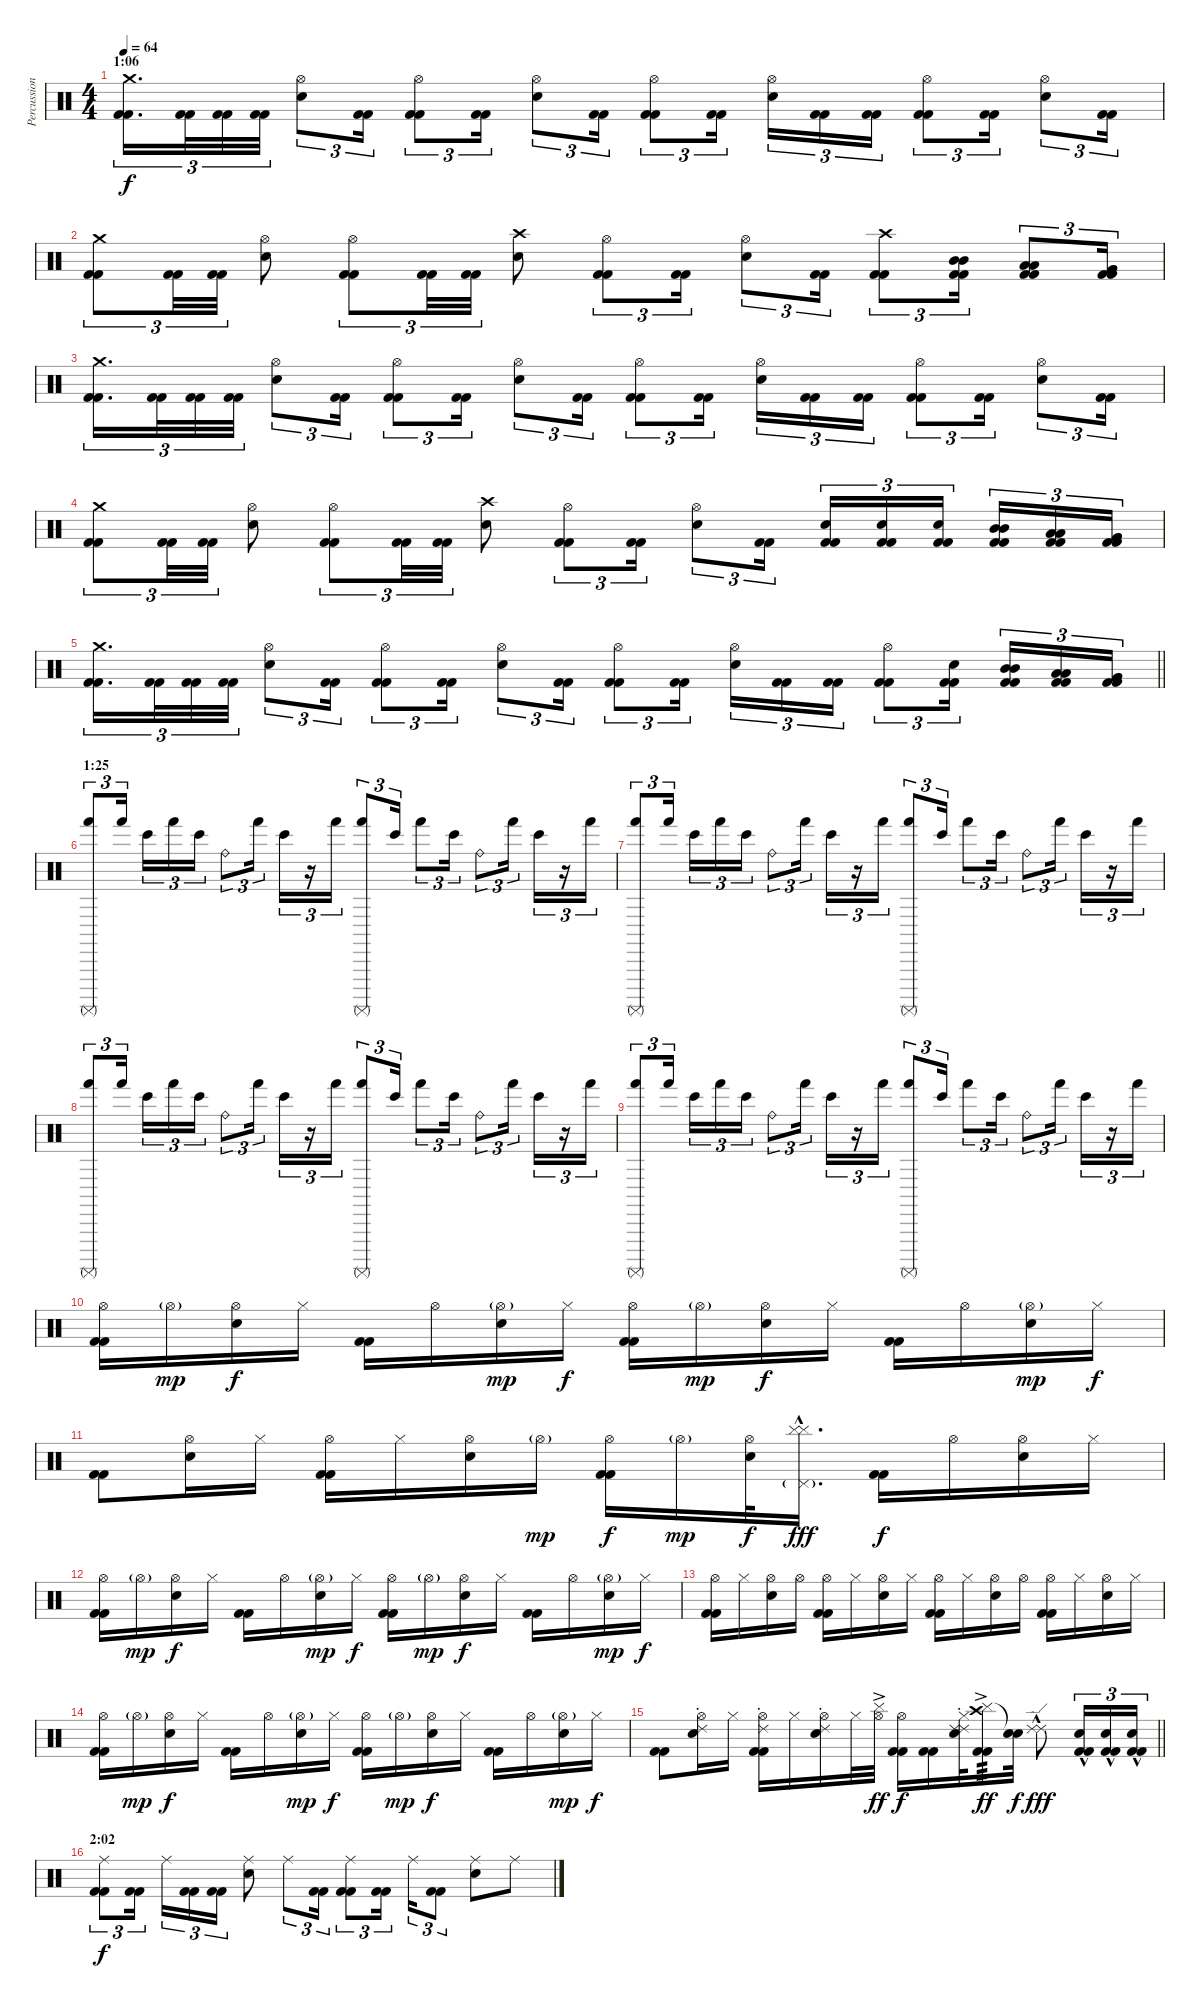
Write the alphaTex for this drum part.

\track ("Percussion" "Percussion") {instrument percussion}
\staff {score}
\articulation defaults
\ts (4 4)
\section ("" "1:06")
\tempo 64
\clef neutral
\ks c
("Crash medium (hit)" "Kick (hit) 2" "Kick (hit) 2").16{d tu (3 2) dy f} ("Kick (hit) 2" "Kick (hit) 2").32{tu (3 2)} ("Kick (hit) 2" "Kick (hit) 2").32{tu (3 2)} ("Kick (hit) 2" "Kick (hit) 2").32{tu (3 2)} ("Hi-Hat (open)" "Electric Snare (hit)").8{tu (3 2)} ("Kick (hit) 2" "Kick (hit) 2").16{tu (3 2)} ("Hi-Hat (open)" "Kick (hit) 2" "Kick (hit) 2").8{tu (3 2)} ("Kick (hit) 2" "Kick (hit) 2").16{tu (3 2)} ("Hi-Hat (open)" "Electric Snare (hit)").8{tu (3 2)} ("Kick (hit) 2" "Kick (hit) 2").16{tu (3 2)} ("Hi-Hat (open)" "Kick (hit) 2" "Kick (hit) 2").8{tu (3 2)} ("Kick (hit) 2" "Kick (hit) 2").16{tu (3 2) beam splitsecondary} ("Hi-Hat (open)" "Electric Snare (hit)").16{tu (3 2)} ("Kick (hit) 2" "Kick (hit) 2").16{tu (3 2)} ("Kick (hit) 2" "Kick (hit) 2").16{tu (3 2)} ("Hi-Hat (open)" "Kick (hit) 2" "Kick (hit) 2").8{tu (3 2)} ("Kick (hit) 2" "Kick (hit) 2").16{tu (3 2)} ("Hi-Hat (open)" "Electric Snare (hit)").8{tu (3 2)} ("Kick (hit) 2" "Kick (hit) 2").16{tu (3 2)} |
("Crash medium (hit)" "Kick (hit) 2" "Kick (hit) 2").8{tu (3 2)} ("Kick (hit) 2" "Kick (hit) 2").32{tu (3 2)} ("Kick (hit) 2" "Kick (hit) 2").32{tu (3 2)} ("Hi-Hat (open)" "Electric Snare (hit)").8 ("Hi-Hat (open)" "Kick (hit) 2" "Kick (hit) 2").8{tu (3 2)} ("Kick (hit) 2" "Kick (hit) 2").32{tu (3 2)} ("Kick (hit) 2" "Kick (hit) 2").32{tu (3 2)} ("Crash high (hit)" "Electric Snare (hit)").8 ("Hi-Hat (open)" "Kick (hit) 2" "Kick (hit) 2").8{tu (3 2)} ("Kick (hit) 2" "Kick (hit) 2").16{tu (3 2)} ("Hi-Hat (open)" "Electric Snare (hit)").8{tu (3 2)} ("Kick (hit) 2" "Kick (hit) 2").16{tu (3 2)} ("Crash high (hit)" "Kick (hit) 2" "Kick (hit) 2").8{tu (3 2)} ("Mid Tom (hit)" "Mid Tom (hit)" "Kick (hit) 2" "Kick (hit) 2").16{tu (3 2)} ("Low Tom (hit)" "Low Tom (hit)" "Kick (hit) 2" "Kick (hit) 2").8{tu (3 2)} ("Very Low Tom (hit)" "Very Low Tom (hit)" "Kick (hit) 2" "Kick (hit) 2").16{tu (3 2)} |
("Crash medium (hit)" "Kick (hit) 2" "Kick (hit) 2").16{d tu (3 2)} ("Kick (hit) 2" "Kick (hit) 2").32{tu (3 2)} ("Kick (hit) 2" "Kick (hit) 2").32{tu (3 2)} ("Kick (hit) 2" "Kick (hit) 2").32{tu (3 2)} ("Hi-Hat (open)" "Electric Snare (hit)").8{tu (3 2)} ("Kick (hit) 2" "Kick (hit) 2").16{tu (3 2)} ("Hi-Hat (open)" "Kick (hit) 2" "Kick (hit) 2").8{tu (3 2)} ("Kick (hit) 2" "Kick (hit) 2").16{tu (3 2)} ("Hi-Hat (open)" "Electric Snare (hit)").8{tu (3 2)} ("Kick (hit) 2" "Kick (hit) 2").16{tu (3 2)} ("Hi-Hat (open)" "Kick (hit) 2" "Kick (hit) 2").8{tu (3 2)} ("Kick (hit) 2" "Kick (hit) 2").16{tu (3 2) beam splitsecondary} ("Hi-Hat (open)" "Electric Snare (hit)").16{tu (3 2)} ("Kick (hit) 2" "Kick (hit) 2").16{tu (3 2)} ("Kick (hit) 2" "Kick (hit) 2").16{tu (3 2)} ("Hi-Hat (open)" "Kick (hit) 2" "Kick (hit) 2").8{tu (3 2)} ("Kick (hit) 2" "Kick (hit) 2").16{tu (3 2)} ("Hi-Hat (open)" "Electric Snare (hit)").8{tu (3 2)} ("Kick (hit) 2" "Kick (hit) 2").16{tu (3 2)} |
("Crash medium (hit)" "Kick (hit) 2" "Kick (hit) 2").8{tu (3 2)} ("Kick (hit) 2" "Kick (hit) 2").32{tu (3 2)} ("Kick (hit) 2" "Kick (hit) 2").32{tu (3 2)} ("Hi-Hat (open)" "Electric Snare (hit)").8 ("Hi-Hat (open)" "Kick (hit) 2" "Kick (hit) 2").8{tu (3 2)} ("Kick (hit) 2" "Kick (hit) 2").32{tu (3 2)} ("Kick (hit) 2" "Kick (hit) 2").32{tu (3 2)} ("Crash high (hit)" "Electric Snare (hit)").8 ("Hi-Hat (open)" "Kick (hit) 2" "Kick (hit) 2").8{tu (3 2)} ("Kick (hit) 2" "Kick (hit) 2").16{tu (3 2)} ("Hi-Hat (open)" "Electric Snare (hit)").8{tu (3 2)} ("Kick (hit) 2" "Kick (hit) 2").16{tu (3 2)} ("Electric Snare (hit)" "Kick (hit) 2" "Kick (hit) 2").16{tu (3 2)} ("Electric Snare (hit)" "Kick (hit) 2" "Kick (hit) 2").16{tu (3 2)} ("Electric Snare (hit)" "Kick (hit) 2" "Kick (hit) 2").16{tu (3 2) beam splitsecondary} ("Mid Tom (hit)" "Mid Tom (hit)" "Kick (hit) 2" "Kick (hit) 2").16{tu (3 2)} ("Low Tom (hit)" "Low Tom (hit)" "Kick (hit) 2" "Kick (hit) 2").16{tu (3 2)} ("Very Low Tom (hit)" "Very Low Tom (hit)" "Kick (hit) 2" "Kick (hit) 2").16{tu (3 2)} |
\barLineRight lightlight
("Crash medium (hit)" "Kick (hit) 2" "Kick (hit) 2").16{d tu (3 2)} ("Kick (hit) 2" "Kick (hit) 2").32{tu (3 2)} ("Kick (hit) 2" "Kick (hit) 2").32{tu (3 2)} ("Kick (hit) 2" "Kick (hit) 2").32{tu (3 2)} ("Hi-Hat (open)" "Electric Snare (hit)").8{tu (3 2)} ("Kick (hit) 2" "Kick (hit) 2").16{tu (3 2)} ("Hi-Hat (open)" "Kick (hit) 2" "Kick (hit) 2").8{tu (3 2)} ("Kick (hit) 2" "Kick (hit) 2").16{tu (3 2)} ("Hi-Hat (open)" "Electric Snare (hit)").8{tu (3 2)} ("Kick (hit) 2" "Kick (hit) 2").16{tu (3 2)} ("Hi-Hat (open)" "Kick (hit) 2" "Kick (hit) 2").8{tu (3 2)} ("Kick (hit) 2" "Kick (hit) 2").16{tu (3 2) beam splitsecondary} ("Hi-Hat (open)" "Electric Snare (hit)").16{tu (3 2)} ("Kick (hit) 2" "Kick (hit) 2").16{tu (3 2)} ("Kick (hit) 2" "Kick (hit) 2").16{tu (3 2)} ("Hi-Hat (open)" "Kick (hit) 2" "Kick (hit) 2").8{tu (3 2)} ("Electric Snare (hit)" "Kick (hit) 2" "Kick (hit) 2").16{tu (3 2) beam splitsecondary} ("Mid Tom (hit)" "Mid Tom (hit)" "Kick (hit) 2" "Kick (hit) 2").16{tu (3 2)} ("Low Tom (hit)" "Low Tom (hit)" "Kick (hit) 2" "Kick (hit) 2").16{tu (3 2)} ("Very Low Tom (hit)" "Very Low Tom (hit)" "Kick (hit) 2" "Kick (hit) 2").16{tu (3 2)} |
\section ("" "1:25")
("Hand (hit)" "Surdo (mute)").8{tu (3 2)} "Hand (hit)".16{tu (3 2) beam splitsecondary} "Bongo High (hit)".16{tu (3 2)} "Hand (hit)".16{tu (3 2)} "Bongo High (hit)".16{tu (3 2)} "Ride (bell)".8{tu (3 2)} "Hand (hit)".16{tu (3 2)} "Bongo High (hit)".16{tu (3 2)} r.16{tu (3 2)} "Hand (hit)".16{tu (3 2)} ("Hand (hit)" "Surdo (mute)").8{tu (3 2)} "Bongo High (hit)".16{tu (3 2)} "Hand (hit)".8{tu (3 2)} "Bongo High (hit)".16{tu (3 2)} "Ride (bell)".8{tu (3 2)} "Hand (hit)".16{tu (3 2)} "Bongo High (hit)".16{tu (3 2)} r.16{tu (3 2)} "Hand (hit)".16{tu (3 2)} |
("Hand (hit)" "Surdo (mute)").8{tu (3 2)} "Hand (hit)".16{tu (3 2) beam splitsecondary} "Bongo High (hit)".16{tu (3 2)} "Hand (hit)".16{tu (3 2)} "Bongo High (hit)".16{tu (3 2)} "Ride (bell)".8{tu (3 2)} "Hand (hit)".16{tu (3 2)} "Bongo High (hit)".16{tu (3 2)} r.16{tu (3 2)} "Hand (hit)".16{tu (3 2)} ("Hand (hit)" "Surdo (mute)").8{tu (3 2)} "Bongo High (hit)".16{tu (3 2)} "Hand (hit)".8{tu (3 2)} "Bongo High (hit)".16{tu (3 2)} "Ride (bell)".8{tu (3 2)} "Hand (hit)".16{tu (3 2)} "Bongo High (hit)".16{tu (3 2)} r.16{tu (3 2)} "Hand (hit)".16{tu (3 2)} |
("Hand (hit)" "Surdo (mute)").8{tu (3 2)} "Hand (hit)".16{tu (3 2) beam splitsecondary} "Bongo High (hit)".16{tu (3 2)} "Hand (hit)".16{tu (3 2)} "Bongo High (hit)".16{tu (3 2)} "Ride (bell)".8{tu (3 2)} "Hand (hit)".16{tu (3 2)} "Bongo High (hit)".16{tu (3 2)} r.16{tu (3 2)} "Hand (hit)".16{tu (3 2)} ("Hand (hit)" "Surdo (mute)").8{tu (3 2)} "Bongo High (hit)".16{tu (3 2)} "Hand (hit)".8{tu (3 2)} "Bongo High (hit)".16{tu (3 2)} "Ride (bell)".8{tu (3 2)} "Hand (hit)".16{tu (3 2)} "Bongo High (hit)".16{tu (3 2)} r.16{tu (3 2)} "Hand (hit)".16{tu (3 2)} |
("Hand (hit)" "Surdo (mute)").8{tu (3 2)} "Hand (hit)".16{tu (3 2) beam splitsecondary} "Bongo High (hit)".16{tu (3 2)} "Hand (hit)".16{tu (3 2)} "Bongo High (hit)".16{tu (3 2)} "Ride (bell)".8{tu (3 2)} "Hand (hit)".16{tu (3 2)} "Bongo High (hit)".16{tu (3 2)} r.16{tu (3 2)} "Hand (hit)".16{tu (3 2)} ("Hand (hit)" "Surdo (mute)").8{tu (3 2)} "Bongo High (hit)".16{tu (3 2)} "Hand (hit)".8{tu (3 2)} "Bongo High (hit)".16{tu (3 2)} "Ride (bell)".8{tu (3 2)} "Hand (hit)".16{tu (3 2)} "Bongo High (hit)".16{tu (3 2)} r.16{tu (3 2)} "Hand (hit)".16{tu (3 2)} |
("Hi-Hat (open)" "Kick (hit) 2" "Kick (hit) 2").16 "Hi-Hat (open)"{g}.16{dy mp} ("Hi-Hat (open)" "Electric Snare (hit)").16{dy f} "Hi-Hat (closed)".16 ("Kick (hit) 2" "Kick (hit) 2").16 "Hi-Hat (open)".16 ("Hi-Hat (open)"{g} "Electric Snare (hit)").16{dy mp} "Hi-Hat (closed)".16{dy f} ("Hi-Hat (open)" "Kick (hit) 2" "Kick (hit) 2").16 "Hi-Hat (open)"{g}.16{dy mp} ("Hi-Hat (open)" "Electric Snare (hit)").16{dy f} "Hi-Hat (closed)".16 ("Kick (hit) 2" "Kick (hit) 2").16 "Hi-Hat (open)".16 ("Hi-Hat (open)"{g} "Electric Snare (hit)").16{dy mp} "Hi-Hat (closed)".16{dy f} |
("Kick (hit) 2" "Kick (hit) 2").8 ("Hi-Hat (open)" "Electric Snare (hit)").16 "Hi-Hat (closed)".16 ("Hi-Hat (open)" "Kick (hit) 2" "Kick (hit) 2").16 "Hi-Hat (closed)".16 ("Hi-Hat (open)" "Electric Snare (hit)").16 "Hi-Hat (open)"{g}.16{dy mp} ("Hi-Hat (open)" "Kick (hit) 2" "Kick (hit) 2").16{dy f} "Hi-Hat (open)"{g}.16{dy mp} ("Hi-Hat (open)" "Electric Snare (hit)").32{dy f} ("Pedal Hi-Hat (hit)"{g} "Cymbal (hit)"{hac} "Cymbal (hit)"{hac}).16{d dy fff} ("Kick (hit) 2" "Kick (hit) 2").16{dy f} "Hi-Hat (open)".16 ("Hi-Hat (open)" "Electric Snare (hit)").16 "Hi-Hat (closed)".16 |
("Hi-Hat (open)" "Kick (hit) 2" "Kick (hit) 2").16 "Hi-Hat (open)"{g}.16{dy mp} ("Hi-Hat (open)" "Electric Snare (hit)").16{dy f} "Hi-Hat (closed)".16 ("Kick (hit) 2" "Kick (hit) 2").16 "Hi-Hat (open)".16 ("Hi-Hat (open)"{g} "Electric Snare (hit)").16{dy mp} "Hi-Hat (closed)".16{dy f} ("Hi-Hat (open)" "Kick (hit) 2" "Kick (hit) 2").16 "Hi-Hat (open)"{g}.16{dy mp} ("Hi-Hat (open)" "Electric Snare (hit)").16{dy f} "Hi-Hat (closed)".16 ("Kick (hit) 2" "Kick (hit) 2").16 "Hi-Hat (open)".16 ("Hi-Hat (open)"{g} "Electric Snare (hit)").16{dy mp} "Hi-Hat (closed)".16{dy f} |
("Hi-Hat (open)" "Kick (hit) 2" "Kick (hit) 2").16 "Hi-Hat (closed)".16 ("Hi-Hat (open)" "Electric Snare (hit)").16 "Hi-Hat (open)".16 ("Hi-Hat (open)" "Kick (hit) 2" "Kick (hit) 2").16 "Hi-Hat (closed)".16 ("Hi-Hat (open)" "Electric Snare (hit)").16 "Hi-Hat (closed)".16 ("Hi-Hat (open)" "Kick (hit) 2" "Kick (hit) 2").16 "Hi-Hat (closed)".16 ("Hi-Hat (open)" "Electric Snare (hit)").16 "Hi-Hat (open)".16 ("Hi-Hat (open)" "Kick (hit) 2" "Kick (hit) 2").16 "Hi-Hat (closed)".16 ("Hi-Hat (open)" "Electric Snare (hit)").16 "Hi-Hat (closed)".16 |
("Hi-Hat (open)" "Kick (hit) 2" "Kick (hit) 2").16 "Hi-Hat (open)"{g}.16{dy mp} ("Hi-Hat (open)" "Electric Snare (hit)").16{dy f} "Hi-Hat (closed)".16 ("Kick (hit) 2" "Kick (hit) 2").16 "Hi-Hat (open)".16 ("Hi-Hat (open)"{g} "Electric Snare (hit)").16{dy mp} "Hi-Hat (closed)".16{dy f} ("Hi-Hat (open)" "Kick (hit) 2" "Kick (hit) 2").16 "Hi-Hat (open)"{g}.16{dy mp} ("Hi-Hat (open)" "Electric Snare (hit)").16{dy f} "Hi-Hat (closed)".16 ("Kick (hit) 2" "Kick (hit) 2").16 "Hi-Hat (open)".16 ("Hi-Hat (open)"{g} "Electric Snare (hit)").16{dy mp} "Hi-Hat (closed)".16{dy f} |
\barLineRight lightlight
("Kick (hit) 2" "Kick (hit) 2").8 ("Ride (choke) 2" "Hi-Hat (open)" "Electric Snare (hit)").16 "Hi-Hat (closed)".16 ("Ride (choke) 2" "Hi-Hat (open)" "Kick (hit) 2" "Kick (hit) 2").16 "Hi-Hat (closed)".16 ("Ride (choke) 2" "Hi-Hat (open)" "Electric Snare (hit)").16 "Hi-Hat (closed)".32 ("Cymbal (hit)"{ac} "Hi-Hat (open)").32{dy ff} ("Hi-Hat (open)" "Kick (hit) 2" "Kick (hit) 2").16{dy f} ("Kick (hit) 2" "Kick (hit) 2").16 ("Ride (choke) 2" "Ride (choke) 2" "Hi-Hat (closed)" "Electric Snare (hit)").32 ("Cymbal (hit)"{ac} "Crash high (hit)" "Kick (hit) 2" "Kick (hit) 2").16{tp 3 dy ff} ("Snare (hit)"{t} "Electric Snare (hit)").32{dy f} ("Ride (edge) 2"{hac} "Ride (edge) 2"{hac}).8{dy fff} ("Electric Snare (hit)"{hac} "Kick (hit) 2"{hac} "Kick (hit) 2"{hac}).16{tu (3 2)} ("Electric Snare (hit)"{hac} "Kick (hit) 2"{hac} "Kick (hit) 2"{hac}).16{tu (3 2)} ("Electric Snare (hit)"{hac} "Kick (hit) 2"{hac} "Kick (hit) 2"{hac}).16{tu (3 2)} |
\section ("" "2:02")
("Ride (middle)" "Kick (hit) 2" "Kick (hit) 2").8{tu (3 2) dy f} ("Kick (hit) 2" "Kick (hit) 2").16{tu (3 2) beam splitsecondary} "Ride (middle)".16{tu (3 2)} ("Kick (hit) 2" "Kick (hit) 2").16{tu (3 2)} ("Kick (hit) 2" "Kick (hit) 2").16{tu (3 2)} ("Ride (middle)" "Electric Snare (hit)").8 "Ride (middle)".8{tu (3 2)} ("Kick (hit) 2" "Kick (hit) 2").16{tu (3 2)} ("Ride (middle)" "Kick (hit) 2" "Kick (hit) 2").8{tu (3 2)} ("Kick (hit) 2" "Kick (hit) 2").16{tu (3 2) beam splitsecondary} "Ride (middle)".16{tu (3 2)} ("Kick (hit) 2" "Kick (hit) 2").8{tu (3 2)} ("Ride (middle)" "Electric Snare (hit)").8 "Ride (middle)".8
